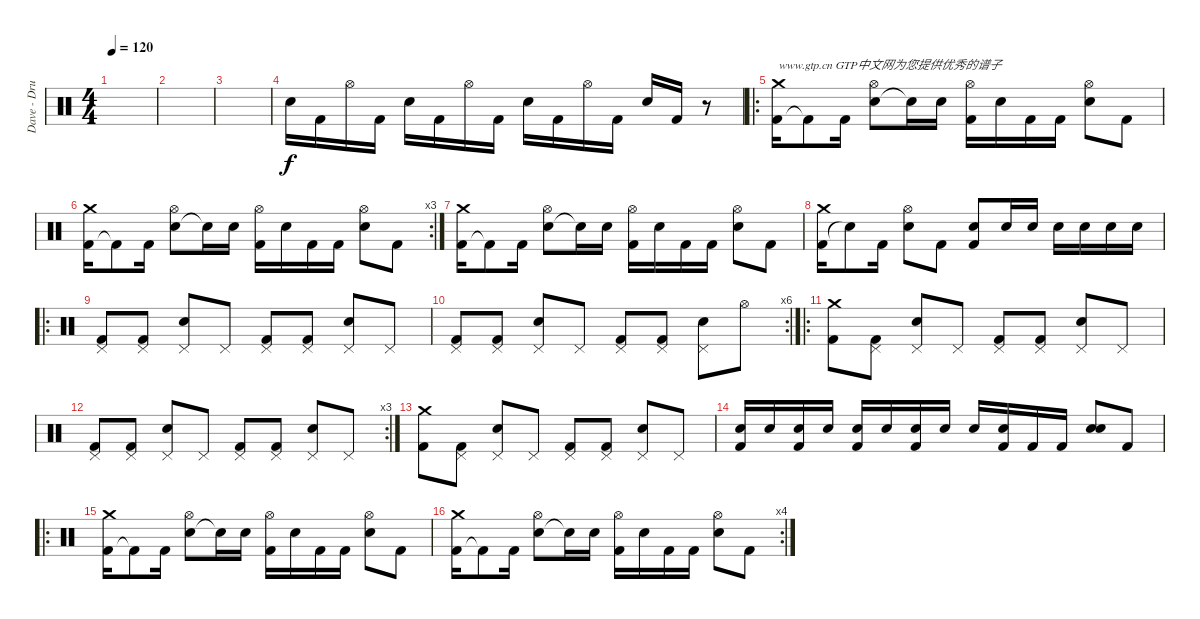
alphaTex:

\track ("Dave - Drums" "Dave - Dru") {instrument percussion}
\staff {score}
\articulation defaults
\ts (4 4)
\tempo 120
\clef neutral
\ks c
|
|
|
"Snare (hit) 2".16 "Kick (hit) 2".16 "Hi-Hat (open)".16 "Kick (hit) 2".16 "Snare (hit) 2".16 "Kick (hit) 2".16 "Hi-Hat (open)".16 "Kick (hit) 2".16 "Snare (hit) 2".16 "Kick (hit) 2".16 "Hi-Hat (open)".16 "Kick (hit) 2".16 "Snare (hit) 2".16 "Kick (hit) 2".16 r.8 |
\ro
("Kick (hit) 2" "Crash medium (hit)").16{txt "www.gtp.cn GTP中文网为您提供优秀的谱子"} "Kick (hit) 2"{t}.8 "Kick (hit) 2".16 ("Snare (hit) 2" "Hi-Hat (open)").8 "Snare (hit)"{t}.16 "Snare (hit) 2".16 ("Kick (hit) 2" "Hi-Hat (open)").16 "Snare (hit) 2".16 "Kick (hit) 2".16 "Kick (hit) 2".16 ("Snare (hit) 2" "Hi-Hat (open)").8 "Kick (hit) 2".8 |
\rc 3
("Kick (hit) 2" "Crash medium (hit)").16 "Kick (hit) 2"{t}.8 "Kick (hit) 2".16 ("Snare (hit) 2" "Hi-Hat (open)").8 "Snare (hit)"{t}.16 "Snare (hit) 2".16 ("Kick (hit) 2" "Hi-Hat (open)").16 "Snare (hit) 2".16 "Kick (hit) 2".16 "Kick (hit) 2".16 ("Snare (hit) 2" "Hi-Hat (open)").8 "Kick (hit) 2".8 |
("Kick (hit) 2" "Crash medium (hit)").16 "Kick (hit) 2"{t}.8 "Kick (hit) 2".16 ("Snare (hit) 2" "Hi-Hat (open)").8 "Snare (hit)"{t}.16 "Snare (hit) 2".16 ("Kick (hit) 2" "Hi-Hat (open)").16 "Snare (hit) 2".16 "Kick (hit) 2".16 "Kick (hit) 2".16 ("Snare (hit) 2" "Hi-Hat (open)").8 "Kick (hit) 2".8 |
("Kick (hit) 2" "Crash medium (hit)").16 "Snare (hit)"{t}.8 "Kick (hit) 2".16 ("Snare (hit) 2" "Hi-Hat (open)").8 "Kick (hit) 2".8 ("Snare (hit) 2" "Kick (hit) 2").8 "Snare (hit) 2".16 "Snare (hit) 2".16 "Snare (hit) 2".16 "Snare (hit) 2".16 "Snare (hit) 2".16 "Snare (hit) 2".16 |
\ro
("Kick (hit) 2" "Pedal Hi-Hat (hit)").8 ("Kick (hit) 2" "Pedal Hi-Hat (hit)").8 ("Snare (hit) 2" "Pedal Hi-Hat (hit)").8 "Pedal Hi-Hat (hit)".8 ("Kick (hit) 2" "Pedal Hi-Hat (hit)").8 ("Kick (hit) 2" "Pedal Hi-Hat (hit)").8 ("Snare (hit) 2" "Pedal Hi-Hat (hit)").8 "Pedal Hi-Hat (hit)".8 |
\rc 6
("Kick (hit) 2" "Pedal Hi-Hat (hit)").8 ("Kick (hit) 2" "Pedal Hi-Hat (hit)").8 ("Snare (hit) 2" "Pedal Hi-Hat (hit)").8 "Pedal Hi-Hat (hit)".8 ("Kick (hit) 2" "Pedal Hi-Hat (hit)").8 ("Kick (hit) 2" "Pedal Hi-Hat (hit)").8 ("Snare (hit) 2" "Pedal Hi-Hat (hit)").8 "Hi-Hat (open)".8 |
\ro
("Kick (hit) 2" "Crash medium (hit)").8 ("Kick (hit) 2" "Pedal Hi-Hat (hit)").8 ("Snare (hit) 2" "Pedal Hi-Hat (hit)").8 "Pedal Hi-Hat (hit)".8 ("Kick (hit) 2" "Pedal Hi-Hat (hit)").8 ("Kick (hit) 2" "Pedal Hi-Hat (hit)").8 ("Snare (hit) 2" "Pedal Hi-Hat (hit)").8 "Pedal Hi-Hat (hit)".8 |
\rc 3
("Kick (hit) 2" "Pedal Hi-Hat (hit)").8 ("Kick (hit) 2" "Pedal Hi-Hat (hit)").8 ("Snare (hit) 2" "Pedal Hi-Hat (hit)").8 "Pedal Hi-Hat (hit)".8 ("Kick (hit) 2" "Pedal Hi-Hat (hit)").8 ("Kick (hit) 2" "Pedal Hi-Hat (hit)").8 ("Snare (hit) 2" "Pedal Hi-Hat (hit)").8 "Pedal Hi-Hat (hit)".8 |
("Kick (hit) 2" "Crash medium (hit)").8 ("Kick (hit) 2" "Pedal Hi-Hat (hit)").8 ("Snare (hit) 2" "Pedal Hi-Hat (hit)").8 "Pedal Hi-Hat (hit)".8 ("Kick (hit) 2" "Pedal Hi-Hat (hit)").8 ("Kick (hit) 2" "Pedal Hi-Hat (hit)").8 ("Snare (hit) 2" "Pedal Hi-Hat (hit)").8 "Pedal Hi-Hat (hit)".8 |
("Snare (hit) 2" "Kick (hit) 2").16 "Snare (hit) 2".16 ("Snare (hit) 2" "Kick (hit) 2").16 "Snare (hit) 2".16 ("Snare (hit) 2" "Kick (hit) 2").16 "Snare (hit) 2".16 ("Snare (hit) 2" "Kick (hit) 2").16 "Snare (hit) 2".16 "Snare (hit) 2".16 ("Snare (hit) 2" "Kick (hit) 2").16 "Kick (hit) 2".16 "Kick (hit) 2".16 ("Snare (hit) 2" "Electric Snare (hit)").8 "Kick (hit) 2".8 |
\ro
("Kick (hit) 2" "Crash medium (hit)").16 "Kick (hit) 2"{t}.8 "Kick (hit) 2".16 ("Snare (hit) 2" "Hi-Hat (open)").8 "Snare (hit)"{t}.16 "Snare (hit) 2".16 ("Kick (hit) 2" "Hi-Hat (open)").16 "Snare (hit) 2".16 "Kick (hit) 2".16 "Kick (hit) 2".16 ("Snare (hit) 2" "Hi-Hat (open)").8 "Kick (hit) 2".8 |
\rc 4
("Kick (hit) 2" "Crash medium (hit)").16 "Kick (hit) 2"{t}.8 "Kick (hit) 2".16 ("Snare (hit) 2" "Hi-Hat (open)").8 "Snare (hit)"{t}.16 "Snare (hit) 2".16 ("Kick (hit) 2" "Hi-Hat (open)").16 "Snare (hit) 2".16 "Kick (hit) 2".16 "Kick (hit) 2".16 ("Snare (hit) 2" "Hi-Hat (open)").8 "Kick (hit) 2".8
